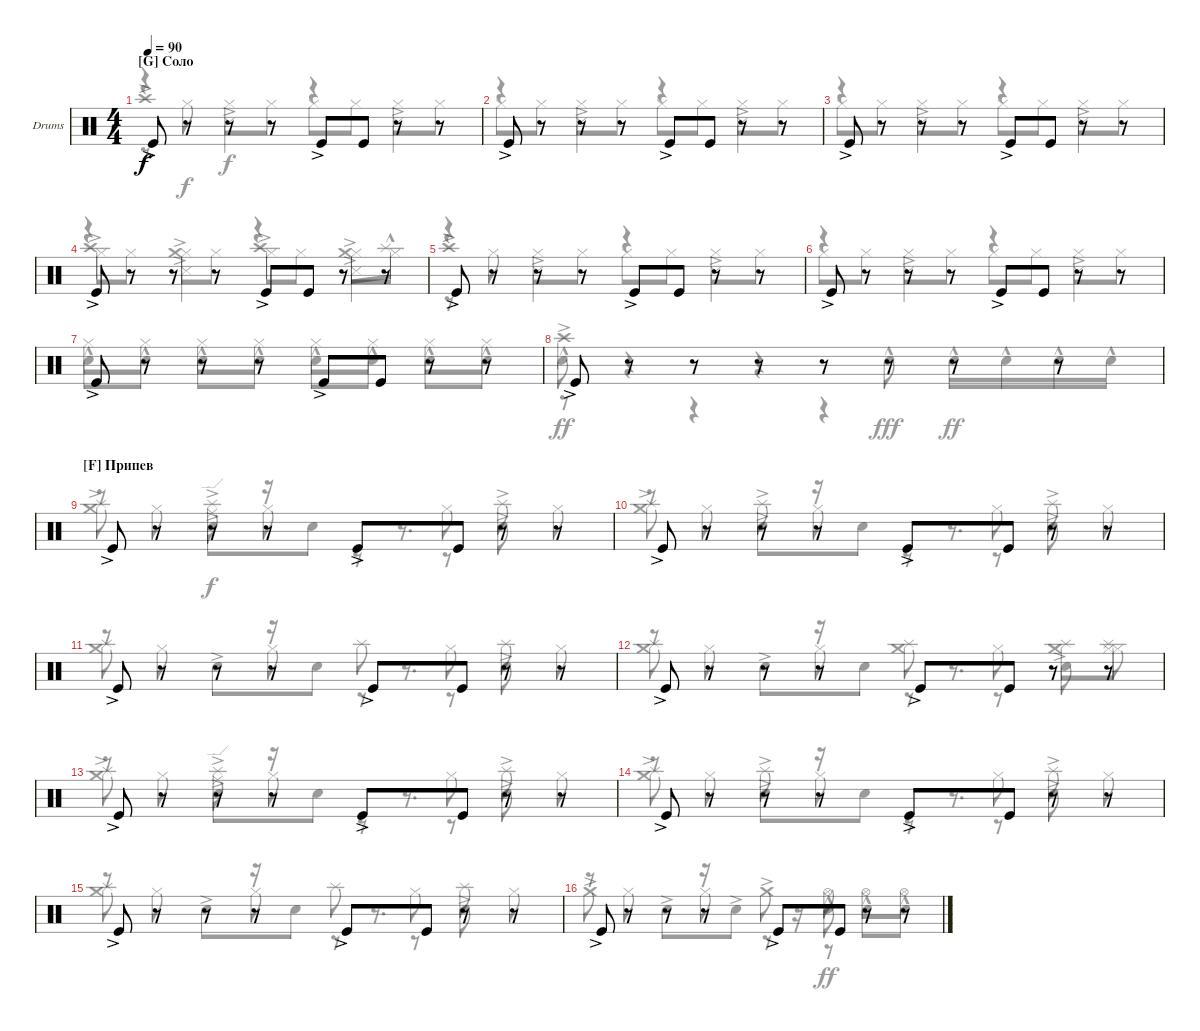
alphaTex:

\defaultSystemsLayout 4
\bracketExtendMode groupsimilarinstruments
\firstSystemTrackNameOrientation horizontal
\otherSystemsTrackNameOrientation horizontal
\track ("Drumkit" "Drums") {instrument percussion}
\staff {score}
\articulation defaults
\voice
\ts (4 4)
\section ("G" "Соло")
\tempo 90
\clef neutral
\scale
0.333333
\ks c "Kick (hit)"{ac}.8{dy f}
r.8 r.8 r.8 "Kick (hit)"{ac}.8 "Kick (hit)".8 r.8 r.8 |
\scale
0.333333 "Kick (hit)"{ac}.8 r.8 r.8 r.8 "Kick (hit)"{ac}.8 "Kick (hit)".8 r.8 r.8 |
\scale
0.333333 "Kick (hit)"{ac}.8 r.8 r.8 r.8 "Kick (hit)"{ac}.8 "Kick (hit)".8 r.8 r.8 |
\scale
0.333333 "Kick (hit)"{ac}.8 r.8 r.8 r.8 "Kick (hit)"{ac}.8 "Kick (hit)".8 r.8 r.8 |
\scale
0.333333 "Kick (hit)"{ac}.8 r.8 r.8 r.8 "Kick (hit)"{ac}.8 "Kick (hit)".8 r.8 r.8 |
\scale
0.333333 "Kick (hit)"{ac}.8 r.8 r.8 r.8 "Kick (hit)"{ac}.8 "Kick (hit)".8 r.8 r.8 |
\scale
0.333333 "Kick (hit)"{ac}.8 r.8 r.8 r.8 "Kick (hit)"{ac}.8 "Kick (hit)".8 r.8 r.8 |
\scale
0.333333 "Kick (hit)"{ac}.8 r.8 r.8 r.8 r.8 r.8 r.8 r.8 |
\section ("F" "Припев")
\scale
0.333333 "Kick (hit)"{ac}.8 r.8 r.8 r.8 "Kick (hit)"{ac}.8 "Kick (hit)".8 r.8 r.8 |
\scale
0.333333 "Kick (hit)"{ac}.8 r.8 r.8 r.8 "Kick (hit)"{ac}.8 "Kick (hit)".8 r.8 r.8 |
\scale
0.333333 "Kick (hit)"{ac}.8 r.8 r.8 r.8 "Kick (hit)"{ac}.8 "Kick (hit)".8 r.8 r.8 |
\scale
0.333333 "Kick (hit)"{ac}.8 r.8 r.8 r.8 "Kick (hit)"{ac}.8 "Kick (hit)".8 r.8 r.8 |
\scale
0.333333 "Kick (hit)"{ac}.8 r.8 r.8 r.8 "Kick (hit)"{ac}.8 "Kick (hit)".8 r.8 r.8 |
\scale
0.333333 "Kick (hit)"{ac}.8 r.8 r.8 r.8 "Kick (hit)"{ac}.8 "Kick (hit)".8 r.8 r.8 |
\scale
0.333333 "Kick (hit)"{ac}.8 r.8 r.8 r.8 "Kick (hit)"{ac}.8 "Kick (hit)".8 r.8 r.8 |
\scale
0.333333 "Kick (hit)"{ac}.8 r.8 r.8 r.8 "Kick (hit)"{ac}.8 "Kick (hit)".8 r.8 r.8
\voice
\clef neutral
\ottava regular
\simile none
\scale
0.333333
\ks c
r.4{dy ff} "Snare (side stick) 3"{ac}.4{dy f} r.4 "Snare (side stick) 3"{ac}.4 |
\scale
0.333333 r.4 "Snare (side stick) 3"{ac}.4 r.4 "Snare (side stick) 3"{ac}.4 |
\scale
0.333333 r.4 "Snare (side stick) 3"{ac}.4 r.4 "Snare (side stick) 3"{ac}.4 |
\scale
0.333333 r.4 "Snare (side stick) 3"{ac}.4 r.4 "Snare (side stick) 3"{ac}.4 |
\scale
0.333333 r.4 "Snare (side stick) 3"{ac}.4 r.4 "Snare (side stick) 3"{ac}.4 |
\scale
0.333333 r.4 "Snare (side stick) 3"{ac}.4 r.4 "Snare (side stick) 3"{ac}.4 |
\scale
0.333333 "Snare (hit) 2"{hac}.8 "Snare (hit) 2"{hac}.8 "Snare (hit) 2"{hac}.8 "Snare (hit) 2"{hac}.8 "Snare (hit) 2"{hac}.8 "Snare (hit) 2"{hac}.8 "Snare (hit) 2"{hac}.8 "Snare (hit) 2"{hac}.8 |
\scale
0.333333 "Snare (hit) 2"{hac}.8{dy ff} r.4 r.4 "Snare (hit) 2"{hac}.8{dy fff} "Snare (hit) 2"{hac}.16{dy ff} "Snare (hit) 2"{hac}.16 "Snare (hit) 2"{hac}.16 "Snare (hit) 2"{hac}.16 |
\scale
0.333333 r.8 r.8 "Snare (hit) 2"{ac}.8{dy f} r.16 "Snare (hit) 2".8 r.8{d} "Snare (hit) 2"{ac}.8 r.8 |
\scale
0.333333 r.8 r.8 "Snare (hit) 2"{ac}.8 r.16 "Snare (hit) 2".8 r.8{d} "Snare (hit) 2"{ac}.8 r.8 |
\scale
0.333333 r.8 r.8 "Snare (hit) 2"{ac}.8 r.16 "Snare (hit) 2".8 r.8{d} "Snare (hit) 2"{ac}.8 r.8 |
\scale
0.333333 r.8 r.8 "Snare (hit) 2"{ac}.8 r.16 "Snare (hit) 2".8 r.8{d} "Snare (hit) 2"{ac}.8 r.8 |
\scale
0.333333 r.8 r.8 "Snare (hit) 2"{ac}.8 r.16 "Snare (hit) 2".8 r.8{d} "Snare (hit) 2"{ac}.8 r.8 |
\scale
0.333333 r.8 r.8 "Snare (hit) 2"{ac}.8 r.16 "Snare (hit) 2".8 r.8{d} "Snare (hit) 2"{ac}.8 r.8 |
\scale
0.333333 r.8 r.8 "Snare (hit) 2"{ac}.8 r.16 "Snare (hit) 2".8 r.8{d} "Snare (hit) 2"{ac}.8 r.8 |
\scale
0.333333 r.8 r.8 "Snare (hit) 2"{ac}.8 r.16 "Snare (hit) 2"{ac}.8 r.16 "Snare (hit) 2"{hac}.8{dy ff} "Snare (hit) 2"{hac}.8 "Snare (hit) 2"{hac}.8
\voice
\clef neutral
\ottava regular
\simile none
\scale
0.333333
\ks c
r.8{dy f} "Hi-Hat (closed)".8 "Hi-Hat (closed)".8 "Hi-Hat (closed)".8 "Hi-Hat (closed)".8 "Hi-Hat (closed)".8 "Hi-Hat (closed)".8 "Hi-Hat (closed)".8 |
\scale
0.333333 "Hi-Hat (closed)".8 "Hi-Hat (closed)".8 "Hi-Hat (closed)".8 "Hi-Hat (closed)".8 "Hi-Hat (closed)".8 "Hi-Hat (closed)".8 "Hi-Hat (closed)".8 "Hi-Hat (closed)".8 |
\scale
0.333333 "Hi-Hat (closed)".8 "Hi-Hat (closed)".8 "Hi-Hat (closed)".8 "Hi-Hat (closed)".8 "Hi-Hat (closed)".8 "Hi-Hat (closed)".8 "Hi-Hat (closed)".8 "Hi-Hat (closed)".8 |
\scale
0.333333 "Hi-Hat (closed)".8 "Hi-Hat (closed)".8 "Hi-Hat (closed)".8 "Hi-Hat (closed)".8 "Hi-Hat (closed)".8 "Hi-Hat (closed)".8 "Hi-Hat (closed)".8 "Hi-Hat (closed)".8 |
\scale
0.333333 r.8 "Hi-Hat (closed)".8 "Hi-Hat (closed)".8 "Hi-Hat (closed)".8 "Hi-Hat (closed)".8 "Hi-Hat (closed)".8 "Hi-Hat (closed)".8 "Hi-Hat (closed)".8 |
\scale
0.333333 "Hi-Hat (closed)".8 "Hi-Hat (closed)".8 "Hi-Hat (closed)".8 "Hi-Hat (closed)".8 "Hi-Hat (closed)".8 "Hi-Hat (closed)".8 "Hi-Hat (closed)".8 "Hi-Hat (closed)".8 |
\scale
0.333333 "Hi-Hat (closed)".8 "Hi-Hat (closed)".8 "Hi-Hat (closed)".8 "Hi-Hat (closed)".8 "Hi-Hat (closed)".8 "Hi-Hat (closed)".8 "Hi-Hat (closed)".8 "Hi-Hat (closed)".8 |
\scale
0.333333 r.8 r.8 r.8 r.8 r.8 r.8 r.8 r.8 |
\scale
0.333333 r.8 "Hi-Hat (closed)".8 r.8 "Hi-Hat (closed)".8 r.8 "Hi-Hat (closed)".8 r.8 "Hi-Hat (closed)".8 |
\scale
0.333333 r.8 "Hi-Hat (closed)".8 r.8 "Hi-Hat (closed)".8 r.8 "Hi-Hat (closed)".8 r.8 "Hi-Hat (closed)".8 |
\scale
0.333333 r.8 "Hi-Hat (closed)".8 r.8 "Hi-Hat (closed)".8 r.8 "Hi-Hat (closed)".8 r.8 "Hi-Hat (closed)".8 |
\scale
0.333333 r.8 "Hi-Hat (closed)".8 r.8 "Hi-Hat (closed)".8 r.8 "Hi-Hat (closed)".8 r.8 "Hi-Hat (closed)".8 |
\scale
0.333333 r.8 "Hi-Hat (closed)".8 r.8 "Hi-Hat (closed)".8 r.8 "Hi-Hat (closed)".8 r.8 "Hi-Hat (closed)".8 |
\scale
0.333333 r.8 "Hi-Hat (closed)".8 r.8 "Hi-Hat (closed)".8 r.8 "Hi-Hat (closed)".8 r.8 "Hi-Hat (closed)".8 |
\scale
0.333333 r.8 "Hi-Hat (closed)".8 r.8 "Hi-Hat (closed)".8 r.8 "Hi-Hat (closed)".8 r.8 "Hi-Hat (closed)".8 |
\scale
0.333333 r.8 "Hi-Hat (closed)".8 r.8 "Hi-Hat (closed)".8 r.8 "Hi-Hat (open)".8 "Hi-Hat (open)".8 "Hi-Hat (open)".8
\voice
\clef neutral
\ottava regular
\simile none
\scale
0.333333
\ks c "Crash high (hit)"{ac}.1{dy f}
|
\scale
0.333333 |
\scale
0.333333 |
\scale
0.333333 "Crash high (hit)"{ac}.4 "Crash medium (hit)"{ac}.4 "Crash high (hit)"{ac}.4 "Crash medium (hit)"{ac}.8 "Splash (hit)"{hac}.8 |
\scale
0.333333 "Crash high (hit)"{ac}.1 |
\scale
0.333333 |
\scale
0.333333 |
\scale
0.333333 "Crash high (hit)"{ac}.4 r.4 r.4 r.8 r.8 |
\scale
0.333333 ("Splash (hit)"{ac} "Crash medium (hit)"{ac}).8 r.8 ("Splash (hit)"{ac} "Ride (edge)"{ac}).8 r.8 r.8 r.8 "Splash (hit)"{ac}.8 r.8 |
\scale
0.333333 ("Splash (hit)"{ac} "Crash medium (hit)"{ac}).8 r.8 "Splash (hit)"{ac}.8 r.8 r.8 r.8 "Splash (hit)"{ac}.8 r.8 |
\scale
0.333333 ("Splash (hit)" "Crash medium (hit)").8 r.8 r.8 r.8 "Splash (hit)".8 r.8 "Splash (hit)".8 r.8 |
\scale
0.333333 ("Splash (hit)" "Crash medium (hit)").8 r.8 r.8 r.8 ("Splash (hit)" "Crash medium (hit)").8 r.8 ("Splash (hit)" "Crash medium (hit)").8 ("Hi-Hat (closed)" "Splash (hit)").8 |
\scale
0.333333 ("Splash (hit)"{ac} "Crash medium (hit)"{ac}).8 r.8 ("Splash (hit)"{ac} "Ride (edge)"{ac}).8 r.8 r.8 r.8 "Splash (hit)"{ac}.8 r.8 |
\scale
0.333333 ("Splash (hit)"{ac} "Crash medium (hit)"{ac}).8 r.8 "Splash (hit)"{ac}.8 r.8 r.8 r.8 "Splash (hit)"{ac}.8 r.8 |
\scale
0.333333 ("Splash (hit)" "Crash medium (hit)").8 r.8 r.8 r.8 "Splash (hit)".8 r.8 "Splash (hit)".8 r.8 |
\scale
0.333333 "Crash medium (hit)"{ac}.8 r.8 r.8 r.8 "Crash medium (hit)"{ac}.8 r.8 r.8 r.8
